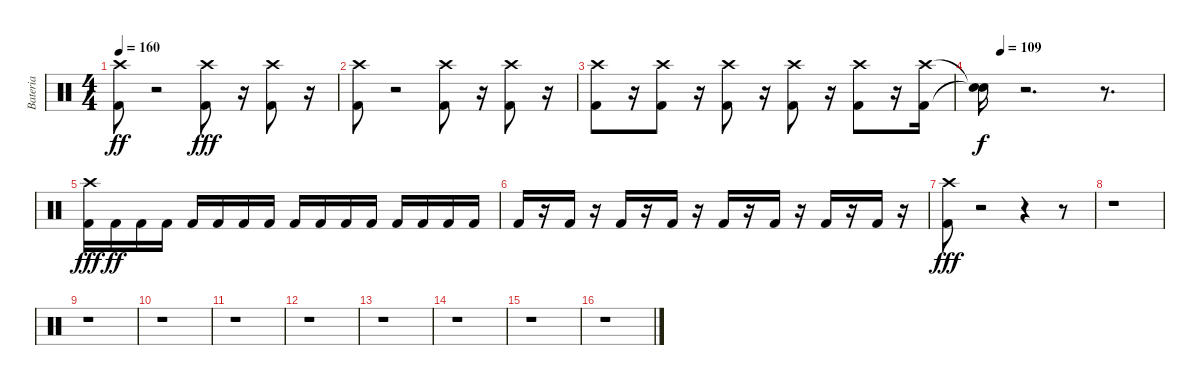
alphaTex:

\track ("Bateria" "Bateria") {instrument percussion}
\staff {score}
\articulation defaults
\ts (4 4)
\tempo 160
\clef neutral
\ks c
("Crash high (hit)" "Kick (hit) 2").8{dy ff} r.2 ("Kick (hit) 2" "Crash high (hit)").8{dy fff} r.16 ("Kick (hit) 2" "Crash high (hit)").8 r.16 |
("Kick (hit) 2" "Crash high (hit)").8 r.2 ("Kick (hit) 2" "Crash high (hit)").8 r.16 ("Kick (hit) 2" "Crash high (hit)").8 r.16 |
("Kick (hit) 2" "Crash high (hit)").8 r.16 ("Kick (hit) 2" "Crash high (hit)").8 r.16 ("Kick (hit) 2" "Crash high (hit)").8 r.16 ("Kick (hit) 2" "Crash high (hit)").8 r.16 ("Kick (hit) 2" "Crash high (hit)").8 r.16 ("Kick (hit) 2" "Crash high (hit)").16 |
\tempo (109 0.125)
("Snare (hit)"{t} "Snare (hit)"{t}).16{dy f} r.2{d} r.8{d} |
("Kick (hit) 2" "Crash high (hit)").16{dy fff} "Kick (hit) 2".16{dy ff} "Kick (hit) 2".16 "Kick (hit) 2".16 "Kick (hit) 2".16 "Kick (hit) 2".16 "Kick (hit) 2".16 "Kick (hit) 2".16 "Kick (hit) 2".16 "Kick (hit) 2".16 "Kick (hit) 2".16 "Kick (hit) 2".16 "Kick (hit) 2".16 "Kick (hit) 2".16 "Kick (hit) 2".16 "Kick (hit) 2".16 |
"Kick (hit) 2".16 r.16 "Kick (hit) 2".16 r.16 "Kick (hit) 2".16 r.16 "Kick (hit) 2".16 r.16 "Kick (hit) 2".16 r.16 "Kick (hit) 2".16 r.16 "Kick (hit) 2".16 r.16 "Kick (hit) 2".16 r.16 |
("Kick (hit) 2" "Crash high (hit)").8{dy fff} r.2 r.4 r.8 |
r.1 |
r.1 |
r.1 |
r.1 |
r.1 |
r.1 |
r.1 |
r.1 |
r.1
